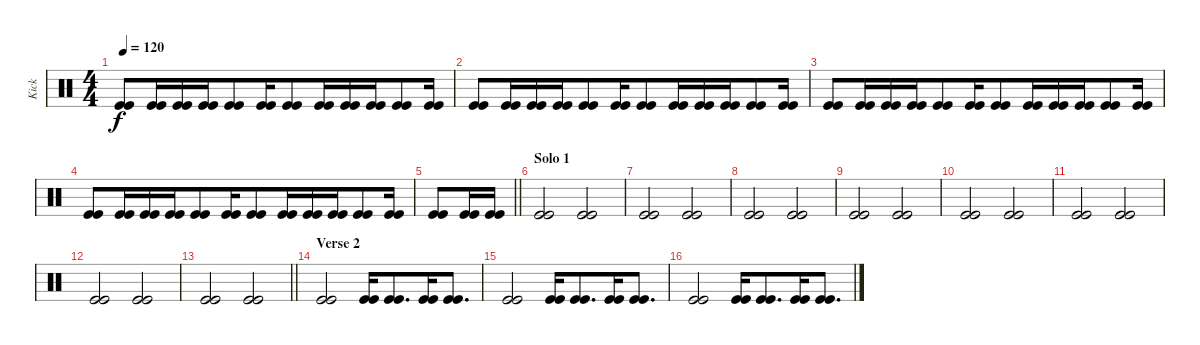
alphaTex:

\track ("Kick" "Kick") {instrument percussion bank 2}
\staff {score}
\articulation defaults
\ts (4 4)
\tempo 120
\clef neutral
\ks c
("Kick (hit)" "Kick (hit)").8{dy f beam merge} ("Kick (hit)" "Kick (hit)").16{beam merge} ("Kick (hit)" "Kick (hit)").16{beam merge} ("Kick (hit)" "Kick (hit)").16{beam merge} ("Kick (hit)" "Kick (hit)").8{beam merge} ("Kick (hit)" "Kick (hit)").16{beam merge} ("Kick (hit)" "Kick (hit)").8{beam merge} ("Kick (hit)" "Kick (hit)").16{beam merge} ("Kick (hit)" "Kick (hit)").16{beam merge} ("Kick (hit)" "Kick (hit)").16{beam merge} ("Kick (hit)" "Kick (hit)").8{beam merge} ("Kick (hit)" "Kick (hit)").16 |
("Kick (hit)" "Kick (hit)").8{beam merge} ("Kick (hit)" "Kick (hit)").16{beam merge} ("Kick (hit)" "Kick (hit)").16{beam merge} ("Kick (hit)" "Kick (hit)").16{beam merge} ("Kick (hit)" "Kick (hit)").8{beam merge} ("Kick (hit)" "Kick (hit)").16{beam merge} ("Kick (hit)" "Kick (hit)").8{beam merge} ("Kick (hit)" "Kick (hit)").16{beam merge} ("Kick (hit)" "Kick (hit)").16{beam merge} ("Kick (hit)" "Kick (hit)").16{beam merge} ("Kick (hit)" "Kick (hit)").8{beam merge} ("Kick (hit)" "Kick (hit)").16 |
("Kick (hit)" "Kick (hit)").8{beam merge} ("Kick (hit)" "Kick (hit)").16{beam merge} ("Kick (hit)" "Kick (hit)").16{beam merge} ("Kick (hit)" "Kick (hit)").16{beam merge} ("Kick (hit)" "Kick (hit)").8{beam merge} ("Kick (hit)" "Kick (hit)").16{beam merge} ("Kick (hit)" "Kick (hit)").8{beam merge} ("Kick (hit)" "Kick (hit)").16{beam merge} ("Kick (hit)" "Kick (hit)").16{beam merge} ("Kick (hit)" "Kick (hit)").16{beam merge} ("Kick (hit)" "Kick (hit)").8{beam merge} ("Kick (hit)" "Kick (hit)").16 |
("Kick (hit)" "Kick (hit)").8{beam merge} ("Kick (hit)" "Kick (hit)").16{beam merge} ("Kick (hit)" "Kick (hit)").16{beam merge} ("Kick (hit)" "Kick (hit)").16{beam merge} ("Kick (hit)" "Kick (hit)").8{beam merge} ("Kick (hit)" "Kick (hit)").16{beam merge} ("Kick (hit)" "Kick (hit)").8{beam merge} ("Kick (hit)" "Kick (hit)").16{beam merge} ("Kick (hit)" "Kick (hit)").16{beam merge} ("Kick (hit)" "Kick (hit)").16{beam merge} ("Kick (hit)" "Kick (hit)").8{beam merge} ("Kick (hit)" "Kick (hit)").16 |
\barLineRight lightlight
("Kick (hit)" "Kick (hit)").8{beam merge} ("Kick (hit)" "Kick (hit)").16{beam merge} ("Kick (hit)" "Kick (hit)").16 |
\section ("" "Solo 1")
("Kick (hit)" "Kick (hit)").2{beam merge} ("Kick (hit)" "Kick (hit)").2 |
("Kick (hit)" "Kick (hit)").2{beam merge} ("Kick (hit)" "Kick (hit)").2 |
("Kick (hit)" "Kick (hit)").2{beam merge} ("Kick (hit)" "Kick (hit)").2 |
("Kick (hit)" "Kick (hit)").2 ("Kick (hit)" "Kick (hit)").2 |
("Kick (hit)" "Kick (hit)").2 ("Kick (hit)" "Kick (hit)").2 |
("Kick (hit)" "Kick (hit)").2{beam merge} ("Kick (hit)" "Kick (hit)").2 |
("Kick (hit)" "Kick (hit)").2 ("Kick (hit)" "Kick (hit)").2 |
\barLineRight lightlight
("Kick (hit)" "Kick (hit)").2 ("Kick (hit)" "Kick (hit)").2 |
\section ("" "Verse 2")
("Kick (hit)" "Kick (hit)").2{beam merge} ("Kick (hit)" "Kick (hit)").16{beam merge} ("Kick (hit)" "Kick (hit)").8{d beam merge} ("Kick (hit)" "Kick (hit)").16 ("Kick (hit)" "Kick (hit)").8{d} |
("Kick (hit)" "Kick (hit)").2{beam merge} ("Kick (hit)" "Kick (hit)").16{beam merge} ("Kick (hit)" "Kick (hit)").8{d beam merge} ("Kick (hit)" "Kick (hit)").16 ("Kick (hit)" "Kick (hit)").8{d} |
("Kick (hit)" "Kick (hit)").2{beam merge} ("Kick (hit)" "Kick (hit)").16{beam merge} ("Kick (hit)" "Kick (hit)").8{d beam merge} ("Kick (hit)" "Kick (hit)").16 ("Kick (hit)" "Kick (hit)").8{d}
